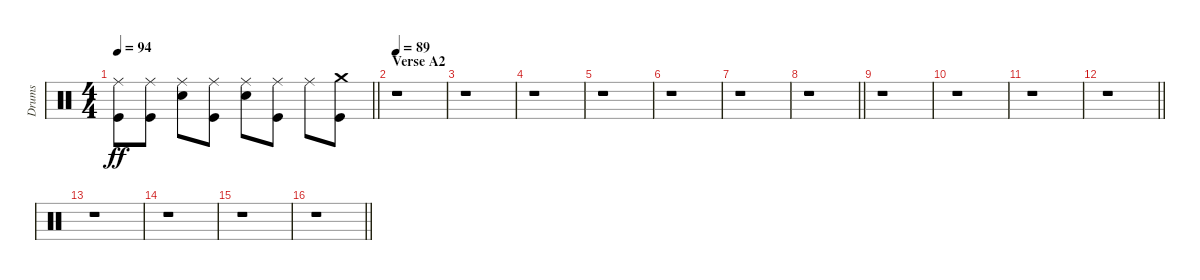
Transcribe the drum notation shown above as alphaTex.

\track ("Drums" "Drums") {instrument percussion}
\staff {score}
\articulation defaults
\ts (4 4)
\tempo 94
\clef neutral
\barLineRight lightlight
\ks c
("Ride (middle)" "Kick (hit)").8{dy ff} ("Ride (middle)" "Kick (hit)").8 ("Ride (middle)" "Electric Snare (hit)").8 ("Ride (middle)" "Kick (hit)").8 ("Ride (middle)" "Electric Snare (hit)").8 ("Ride (middle)" "Kick (hit)").8 "Ride (middle)".8 ("Crash medium (hit)" "Kick (hit)").8 |
\section ("" "Verse A2")
\tempo 89
r.1 |
r.1 |
r.1 |
r.1 |
r.1 |
r.1 |
\barLineRight lightlight
r.1 |
r.1 |
r.1 |
r.1 |
\barLineRight lightlight
r.1 |
r.1 |
r.1 |
r.1 |
\barLineRight lightlight
r.1
